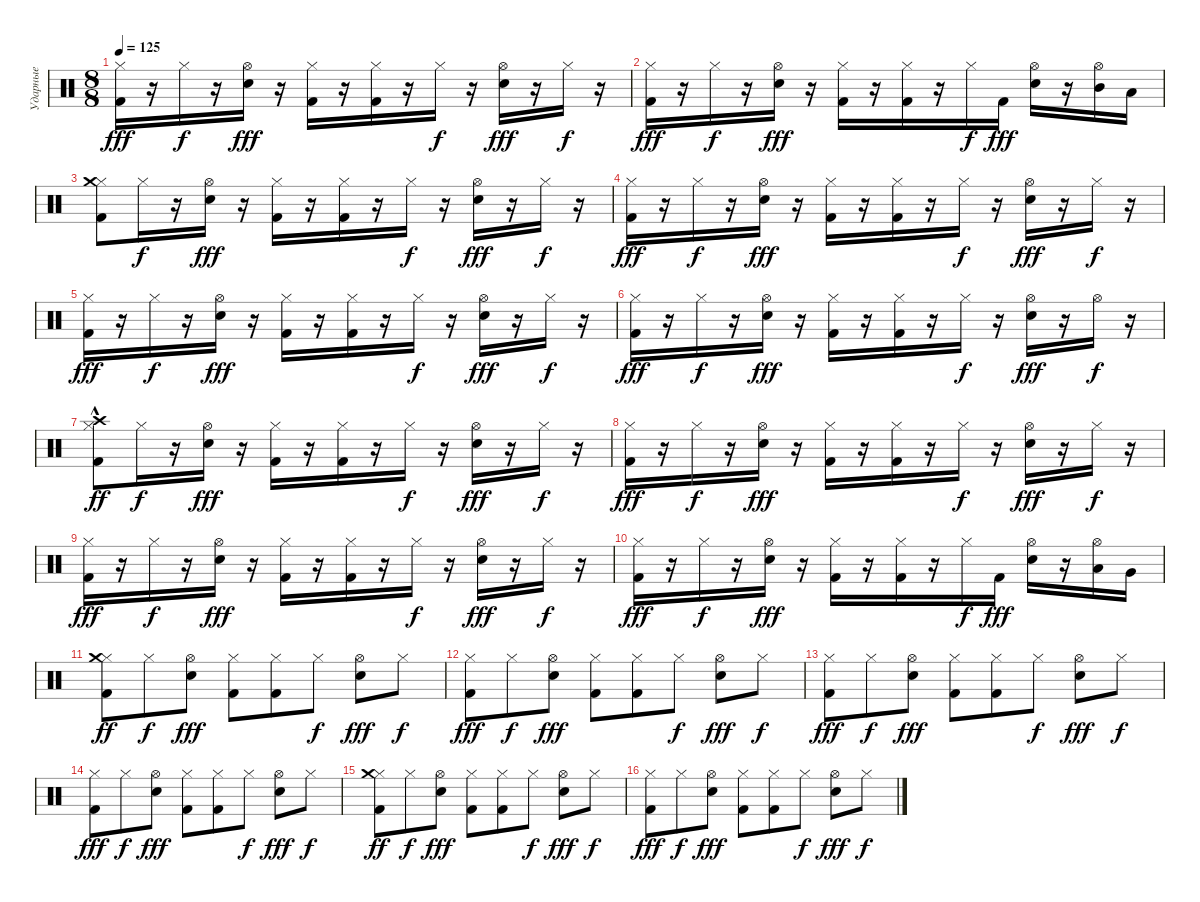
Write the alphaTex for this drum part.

\track ("Ударные" "Ударные") {instrument percussion}
\staff {score}
\articulation defaults
\ts (8 8)
\tempo 125
\clef neutral
\ks c
("Kick (hit) 2" "Hi-Hat (closed)").16{dy fff} r.16 "Hi-Hat (closed)".16{dy f} r.16 ("Hi-Hat (open)" "Snare (hit) 2").16{dy fff} r.16 ("Kick (hit) 2" "Hi-Hat (closed)").16 r.16 ("Kick (hit) 2" "Hi-Hat (closed)").16 r.16 "Hi-Hat (closed)".16{dy f} r.16 ("Hi-Hat (open)" "Snare (hit) 2").16{dy fff} r.16 "Hi-Hat (closed)".16{dy f} r.16 |
("Kick (hit) 2" "Hi-Hat (closed)").16{dy fff} r.16 "Hi-Hat (closed)".16{dy f} r.16 ("Hi-Hat (open)" "Snare (hit) 2").16{dy fff} r.16 ("Kick (hit) 2" "Hi-Hat (closed)").16 r.16 ("Kick (hit) 2" "Hi-Hat (closed)").16 r.16 "Hi-Hat (closed)".16{dy f} "Kick (hit) 2".16{dy fff} ("Hi-Hat (open)" "Snare (hit) 2").16 r.16 ("Hi-Hat (open)" "Mid Tom (hit)").16 "Low Tom (hit)".16 |
("Kick (hit) 2" "Hi-Hat (closed)" "Crash medium (hit)").8 "Hi-Hat (closed)".16{dy f} r.16 ("Hi-Hat (open)" "Snare (hit) 2").16{dy fff} r.16 ("Kick (hit) 2" "Hi-Hat (closed)").16 r.16 ("Kick (hit) 2" "Hi-Hat (closed)").16 r.16 "Hi-Hat (closed)".16{dy f} r.16 ("Hi-Hat (open)" "Snare (hit) 2").16{dy fff} r.16 "Hi-Hat (closed)".16{dy f} r.16 |
("Kick (hit) 2" "Hi-Hat (closed)").16{dy fff} r.16 "Hi-Hat (closed)".16{dy f} r.16 ("Hi-Hat (open)" "Snare (hit) 2").16{dy fff} r.16 ("Kick (hit) 2" "Hi-Hat (closed)").16 r.16 ("Kick (hit) 2" "Hi-Hat (closed)").16 r.16 "Hi-Hat (closed)".16{dy f} r.16 ("Hi-Hat (open)" "Snare (hit) 2").16{dy fff} r.16 "Hi-Hat (closed)".16{dy f} r.16 |
("Kick (hit) 2" "Hi-Hat (closed)").16{dy fff} r.16 "Hi-Hat (closed)".16{dy f} r.16 ("Hi-Hat (open)" "Snare (hit) 2").16{dy fff} r.16 ("Kick (hit) 2" "Hi-Hat (closed)").16 r.16 ("Kick (hit) 2" "Hi-Hat (closed)").16 r.16 "Hi-Hat (closed)".16{dy f} r.16 ("Hi-Hat (open)" "Snare (hit) 2").16{dy fff} r.16 "Hi-Hat (closed)".16{dy f} r.16 |
("Kick (hit) 2" "Hi-Hat (closed)").16{dy fff} r.16 "Hi-Hat (closed)".16{dy f} r.16 ("Hi-Hat (open)" "Snare (hit) 2").16{dy fff} r.16 ("Kick (hit) 2" "Hi-Hat (closed)").16 r.16 ("Kick (hit) 2" "Hi-Hat (closed)").16 r.16 "Hi-Hat (closed)".16{dy f} r.16 ("Hi-Hat (open)" "Snare (hit) 2").16{dy fff} r.16 "Hi-Hat (open)".16{dy f} r.16 |
("Kick (hit) 2" "Hi-Hat (closed)" "Crash high (hit)"{hac}).8{dy ff} "Hi-Hat (closed)".16{dy f} r.16 ("Hi-Hat (open)" "Snare (hit) 2").16{dy fff} r.16 ("Kick (hit) 2" "Hi-Hat (closed)").16 r.16 ("Kick (hit) 2" "Hi-Hat (closed)").16 r.16 "Hi-Hat (closed)".16{dy f} r.16 ("Hi-Hat (open)" "Snare (hit) 2").16{dy fff} r.16 "Hi-Hat (closed)".16{dy f} r.16 |
("Kick (hit) 2" "Hi-Hat (closed)").16{dy fff} r.16 "Hi-Hat (closed)".16{dy f} r.16 ("Hi-Hat (open)" "Snare (hit) 2").16{dy fff} r.16 ("Kick (hit) 2" "Hi-Hat (closed)").16 r.16 ("Kick (hit) 2" "Hi-Hat (closed)").16 r.16 "Hi-Hat (closed)".16{dy f} r.16 ("Hi-Hat (open)" "Snare (hit) 2").16{dy fff} r.16 "Hi-Hat (closed)".16{dy f} r.16 |
("Kick (hit) 2" "Hi-Hat (closed)").16{dy fff} r.16 "Hi-Hat (closed)".16{dy f} r.16 ("Hi-Hat (open)" "Snare (hit) 2").16{dy fff} r.16 ("Kick (hit) 2" "Hi-Hat (closed)").16 r.16 ("Kick (hit) 2" "Hi-Hat (closed)").16 r.16 "Hi-Hat (closed)".16{dy f} r.16 ("Hi-Hat (open)" "Snare (hit) 2").16{dy fff} r.16 "Hi-Hat (closed)".16{dy f} r.16 |
("Kick (hit) 2" "Hi-Hat (closed)").16{dy fff} r.16 "Hi-Hat (closed)".16{dy f} r.16 ("Hi-Hat (open)" "Snare (hit) 2").16{dy fff} r.16 ("Kick (hit) 2" "Hi-Hat (closed)").16 r.16 ("Kick (hit) 2" "Hi-Hat (closed)").16 r.16 "Hi-Hat (closed)".16{dy f} "Kick (hit) 2".16{dy fff} ("Hi-Hat (open)" "Snare (hit) 2").16 r.16 ("Hi-Hat (open)" "Low Tom (hit)").16 "Very Low Tom (hit)".16 |
("Kick (hit) 2" "Hi-Hat (closed)" "Crash medium (hit)").8{dy ff} "Hi-Hat (closed)".8{dy f} ("Hi-Hat (open)" "Snare (hit) 2").8{dy fff} ("Kick (hit) 2" "Hi-Hat (closed)").8 ("Kick (hit) 2" "Hi-Hat (closed)").8 "Hi-Hat (closed)".8{dy f} ("Hi-Hat (open)" "Snare (hit) 2").8{dy fff} "Hi-Hat (closed)".8{dy f} |
("Kick (hit) 2" "Hi-Hat (closed)").8{dy fff} "Hi-Hat (closed)".8{dy f} ("Hi-Hat (open)" "Snare (hit) 2").8{dy fff} ("Kick (hit) 2" "Hi-Hat (closed)").8 ("Kick (hit) 2" "Hi-Hat (closed)").8 "Hi-Hat (closed)".8{dy f} ("Hi-Hat (open)" "Snare (hit) 2").8{dy fff} "Hi-Hat (closed)".8{dy f} |
("Kick (hit) 2" "Hi-Hat (closed)").8{dy fff} "Hi-Hat (closed)".8{dy f} ("Hi-Hat (open)" "Snare (hit) 2").8{dy fff} ("Kick (hit) 2" "Hi-Hat (closed)").8 ("Kick (hit) 2" "Hi-Hat (closed)").8 "Hi-Hat (closed)".8{dy f} ("Hi-Hat (open)" "Snare (hit) 2").8{dy fff} "Hi-Hat (closed)".8{dy f} |
("Kick (hit) 2" "Hi-Hat (closed)").8{dy fff} "Hi-Hat (closed)".8{dy f} ("Hi-Hat (open)" "Snare (hit) 2").8{dy fff} ("Kick (hit) 2" "Hi-Hat (closed)").8 ("Kick (hit) 2" "Hi-Hat (closed)").8 "Hi-Hat (closed)".8{dy f} ("Hi-Hat (open)" "Snare (hit) 2").8{dy fff} "Hi-Hat (closed)".8{dy f} |
("Kick (hit) 2" "Hi-Hat (closed)" "Crash medium (hit)").8{dy ff} "Hi-Hat (closed)".8{dy f} ("Hi-Hat (open)" "Snare (hit) 2").8{dy fff} ("Kick (hit) 2" "Hi-Hat (closed)").8 ("Kick (hit) 2" "Hi-Hat (closed)").8 "Hi-Hat (closed)".8{dy f} ("Hi-Hat (open)" "Snare (hit) 2").8{dy fff} "Hi-Hat (closed)".8{dy f} |
("Kick (hit) 2" "Hi-Hat (closed)").8{dy fff} "Hi-Hat (closed)".8{dy f} ("Hi-Hat (open)" "Snare (hit) 2").8{dy fff} ("Kick (hit) 2" "Hi-Hat (closed)").8 ("Kick (hit) 2" "Hi-Hat (closed)").8 "Hi-Hat (closed)".8{dy f} ("Hi-Hat (open)" "Snare (hit) 2").8{dy fff} "Hi-Hat (closed)".8{dy f}
